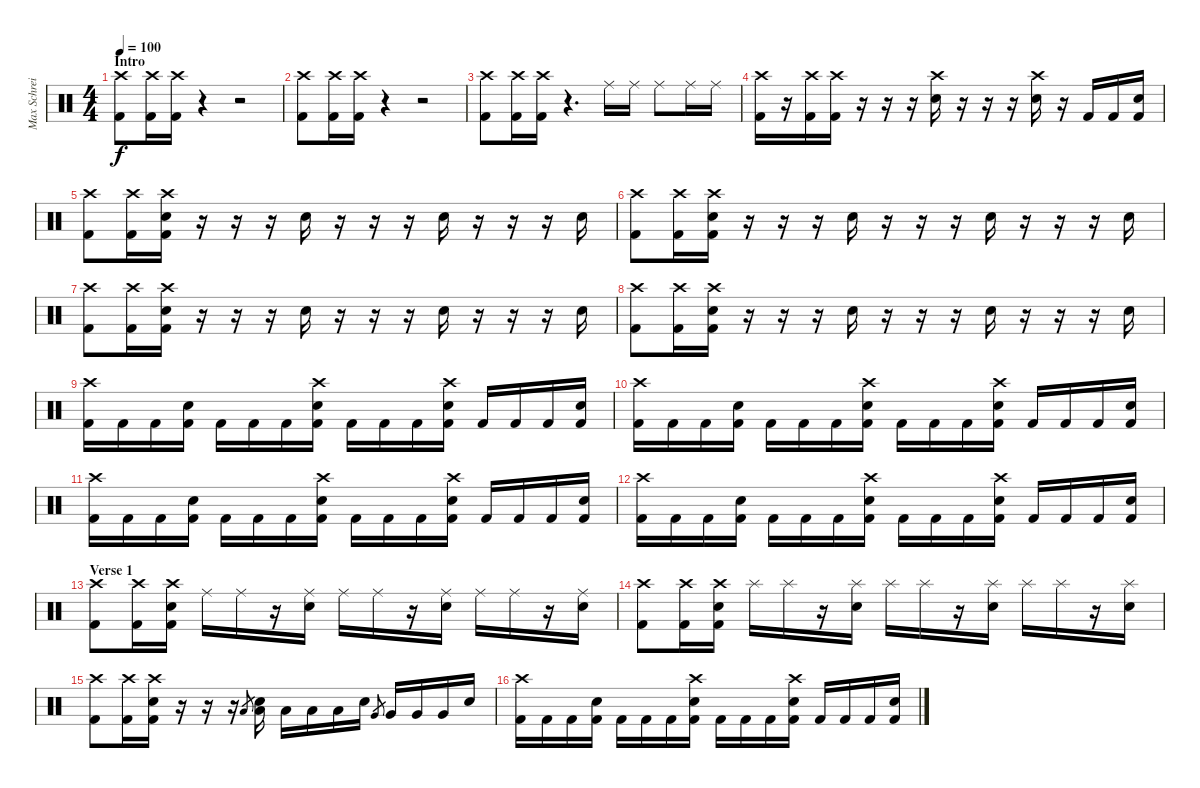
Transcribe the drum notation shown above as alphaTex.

\track ("Max Schreiber " "Max Schrei") {instrument percussion}
\staff {score}
\articulation defaults
\ts (4 4)
\section ("" "Intro")
\tempo 100
\clef neutral
\ks c
("Crash high (hit)" "Kick (hit) 2").8{dy f} ("Crash high (hit)" "Kick (hit) 2").16 ("Crash high (hit)" "Kick (hit) 2").16 r.4 r.2 |
("Crash high (hit)" "Kick (hit) 2").8 ("Crash high (hit)" "Kick (hit) 2").16 ("Crash high (hit)" "Kick (hit) 2").16 r.4 r.2 |
("Crash high (hit)" "Kick (hit) 2").8 ("Crash high (hit)" "Kick (hit) 2").16 ("Crash high (hit)" "Kick (hit) 2").16 r.4{d} "Ride (middle)".16 "Ride (middle)".16 "Ride (middle)".8 "Ride (middle)".16 "Ride (middle)".16 |
("Crash high (hit)" "Kick (hit) 2").16 r.16 ("Crash high (hit)" "Kick (hit) 2").16 ("Crash high (hit)" "Kick (hit) 2").16 r.16 r.16 r.16 ("Crash high (hit)" "Electric Snare (hit)").16 r.16 r.16 r.16 ("Crash high (hit)" "Electric Snare (hit)").16 r.16 "Kick (hit) 2".16 "Kick (hit) 2".16 ("Electric Snare (hit)" "Kick (hit) 2").16 |
("Crash high (hit)" "Kick (hit) 2").8 ("Crash high (hit)" "Kick (hit) 2").16 ("Crash high (hit)" "Electric Snare (hit)" "Kick (hit) 2").16 r.16 r.16 r.16 "Electric Snare (hit)".16 r.16 r.16 r.16 "Electric Snare (hit)".16 r.16 r.16 r.16 "Electric Snare (hit)".16 |
("Crash high (hit)" "Kick (hit) 2").8 ("Crash high (hit)" "Kick (hit) 2").16 ("Crash high (hit)" "Electric Snare (hit)" "Kick (hit) 2").16 r.16 r.16 r.16 "Electric Snare (hit)".16 r.16 r.16 r.16 "Electric Snare (hit)".16 r.16 r.16 r.16 "Electric Snare (hit)".16 |
("Crash high (hit)" "Kick (hit) 2").8 ("Crash high (hit)" "Kick (hit) 2").16 ("Crash high (hit)" "Electric Snare (hit)" "Kick (hit) 2").16 r.16 r.16 r.16 "Electric Snare (hit)".16 r.16 r.16 r.16 "Electric Snare (hit)".16 r.16 r.16 r.16 "Electric Snare (hit)".16 |
("Crash high (hit)" "Kick (hit) 2").8 ("Crash high (hit)" "Kick (hit) 2").16 ("Crash high (hit)" "Electric Snare (hit)" "Kick (hit) 2").16 r.16 r.16 r.16 "Electric Snare (hit)".16 r.16 r.16 r.16 "Electric Snare (hit)".16 r.16 r.16 r.16 "Electric Snare (hit)".16 |
("Crash high (hit)" "Kick (hit) 2").16 "Kick (hit) 2".16 "Kick (hit) 2".16 ("Electric Snare (hit)" "Kick (hit) 2").16 "Kick (hit) 2".16 "Kick (hit) 2".16 "Kick (hit) 2".16 ("Crash high (hit)" "Electric Snare (hit)" "Kick (hit) 2").16 "Kick (hit) 2".16 "Kick (hit) 2".16 "Kick (hit) 2".16 ("Crash high (hit)" "Electric Snare (hit)" "Kick (hit) 2").16 "Kick (hit) 2".16 "Kick (hit) 2".16 "Kick (hit) 2".16 ("Electric Snare (hit)" "Kick (hit) 2").16 |
("Crash high (hit)" "Kick (hit) 2").16 "Kick (hit) 2".16 "Kick (hit) 2".16 ("Electric Snare (hit)" "Kick (hit) 2").16 "Kick (hit) 2".16 "Kick (hit) 2".16 "Kick (hit) 2".16 ("Crash high (hit)" "Electric Snare (hit)" "Kick (hit) 2").16 "Kick (hit) 2".16 "Kick (hit) 2".16 "Kick (hit) 2".16 ("Crash high (hit)" "Electric Snare (hit)" "Kick (hit) 2").16 "Kick (hit) 2".16 "Kick (hit) 2".16 "Kick (hit) 2".16 ("Electric Snare (hit)" "Kick (hit) 2").16 |
("Crash high (hit)" "Kick (hit) 2").16 "Kick (hit) 2".16 "Kick (hit) 2".16 ("Electric Snare (hit)" "Kick (hit) 2").16 "Kick (hit) 2".16 "Kick (hit) 2".16 "Kick (hit) 2".16 ("Crash high (hit)" "Electric Snare (hit)" "Kick (hit) 2").16 "Kick (hit) 2".16 "Kick (hit) 2".16 "Kick (hit) 2".16 ("Crash high (hit)" "Electric Snare (hit)" "Kick (hit) 2").16 "Kick (hit) 2".16 "Kick (hit) 2".16 "Kick (hit) 2".16 ("Electric Snare (hit)" "Kick (hit) 2").16 |
("Crash high (hit)" "Kick (hit) 2").16 "Kick (hit) 2".16 "Kick (hit) 2".16 ("Electric Snare (hit)" "Kick (hit) 2").16 "Kick (hit) 2".16 "Kick (hit) 2".16 "Kick (hit) 2".16 ("Crash high (hit)" "Electric Snare (hit)" "Kick (hit) 2").16 "Kick (hit) 2".16 "Kick (hit) 2".16 "Kick (hit) 2".16 ("Crash high (hit)" "Electric Snare (hit)" "Kick (hit) 2").16 "Kick (hit) 2".16 "Kick (hit) 2".16 "Kick (hit) 2".16 ("Electric Snare (hit)" "Kick (hit) 2").16 |
\section ("" "Verse 1")
("Crash high (hit)" "Kick (hit) 2").8 ("Crash high (hit)" "Kick (hit) 2").16 ("Crash high (hit)" "Electric Snare (hit)" "Kick (hit) 2").16 "Ride (middle)".16 "Ride (middle)".16 r.16 ("Ride (middle)" "Electric Snare (hit)").16 "Ride (middle)".16 "Ride (middle)".16 r.16 ("Ride (middle)" "Electric Snare (hit)").16 "Ride (middle)".16 "Ride (middle)".16 r.16 ("Ride (middle)" "Electric Snare (hit)").16 |
("Crash high (hit)" "Kick (hit) 2").8 ("Crash high (hit)" "Kick (hit) 2").16 ("Crash high (hit)" "Electric Snare (hit)" "Kick (hit) 2").16 "Splash (hit)".16 "Splash (hit)".16 r.16 ("Splash (hit)" "Electric Snare (hit)").16 "Splash (hit)".16 "Splash (hit)".16 r.16 ("Splash (hit)" "Electric Snare (hit)").16 "Splash (hit)".16 "Splash (hit)".16 r.16 ("Splash (hit)" "Electric Snare (hit)").16 |
("Crash high (hit)" "Kick (hit) 2").8 ("Crash high (hit)" "Kick (hit) 2").16 ("Crash high (hit)" "Electric Snare (hit)" "Kick (hit) 2").16 r.16 r.16 r.16 "Low Tom (hit)".8{gr} ("Low Tom (hit)" "Electric Snare (hit)").16 "Low Tom (hit)".16 "Low Tom (hit)".16 "Low Tom (hit)".16 "Electric Snare (hit)".16 "Very Low Tom (hit)".8{gr} "Very Low Tom (hit)".16 "Very Low Tom (hit)".16 "Very Low Tom (hit)".16 "Electric Snare (hit)".16 |
("Crash high (hit)" "Kick (hit) 2").16 "Kick (hit) 2".16 "Kick (hit) 2".16 ("Electric Snare (hit)" "Kick (hit) 2").16 "Kick (hit) 2".16 "Kick (hit) 2".16 "Kick (hit) 2".16 ("Crash high (hit)" "Electric Snare (hit)" "Kick (hit) 2").16 "Kick (hit) 2".16 "Kick (hit) 2".16 "Kick (hit) 2".16 ("Crash high (hit)" "Electric Snare (hit)" "Kick (hit) 2").16 "Kick (hit) 2".16 "Kick (hit) 2".16 "Kick (hit) 2".16 ("Electric Snare (hit)" "Kick (hit) 2").16
